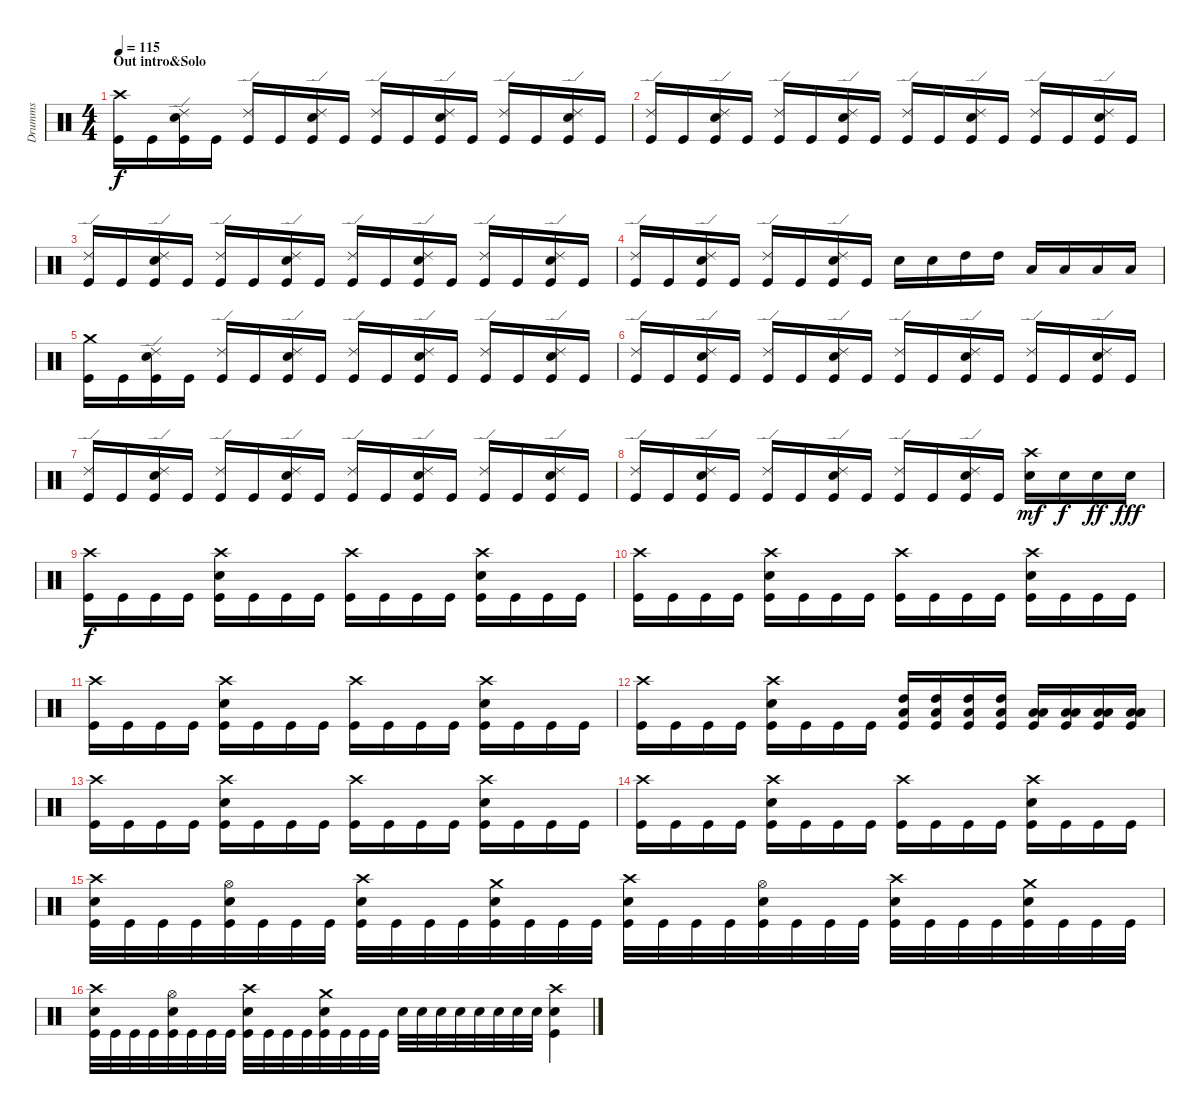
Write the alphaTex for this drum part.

\track ("Drumms" "Drumms") {instrument percussion}
\staff {score}
\articulation defaults
\ts (4 4)
\section ("" "Out intro&Solo")
\tempo 115
\clef neutral
\ks c
("Crash high (hit)" "Kick (hit)").16{dy f} "Kick (hit)".16 ("Ride (edge) 2" "Snare (hit) 2" "Kick (hit)").16 "Kick (hit)".16 ("Ride (edge) 2" "Kick (hit)").16 "Kick (hit)".16 ("Ride (edge) 2" "Snare (hit) 2" "Kick (hit)").16 "Kick (hit)".16 ("Ride (edge) 2" "Kick (hit)").16 "Kick (hit)".16 ("Ride (edge) 2" "Snare (hit) 2" "Kick (hit)").16 "Kick (hit)".16 ("Ride (edge) 2" "Kick (hit)").16 "Kick (hit)".16 ("Ride (edge) 2" "Snare (hit) 2" "Kick (hit)").16 "Kick (hit)".16 |
("Ride (edge) 2" "Kick (hit)").16 "Kick (hit)".16 ("Ride (edge) 2" "Snare (hit) 2" "Kick (hit)").16 "Kick (hit)".16 ("Ride (edge) 2" "Kick (hit)").16 "Kick (hit)".16 ("Ride (edge) 2" "Snare (hit) 2" "Kick (hit)").16 "Kick (hit)".16 ("Ride (edge) 2" "Kick (hit)").16 "Kick (hit)".16 ("Ride (edge) 2" "Snare (hit) 2" "Kick (hit)").16 "Kick (hit)".16 ("Ride (edge) 2" "Kick (hit)").16 "Kick (hit)".16 ("Ride (edge) 2" "Snare (hit) 2" "Kick (hit)").16 "Kick (hit)".16 |
("Ride (edge) 2" "Kick (hit)").16 "Kick (hit)".16 ("Ride (edge) 2" "Snare (hit) 2" "Kick (hit)").16 "Kick (hit)".16 ("Ride (edge) 2" "Kick (hit)").16 "Kick (hit)".16 ("Ride (edge) 2" "Snare (hit) 2" "Kick (hit)").16 "Kick (hit)".16 ("Ride (edge) 2" "Kick (hit)").16 "Kick (hit)".16 ("Ride (edge) 2" "Snare (hit) 2" "Kick (hit)").16 "Kick (hit)".16 ("Ride (edge) 2" "Kick (hit)").16 "Kick (hit)".16 ("Ride (edge) 2" "Snare (hit) 2" "Kick (hit)").16 "Kick (hit)".16 |
("Ride (edge) 2" "Kick (hit)").16 "Kick (hit)".16 ("Ride (edge) 2" "Snare (hit) 2" "Kick (hit)").16 "Kick (hit)".16 ("Ride (edge) 2" "Kick (hit)").16 "Kick (hit)".16 ("Ride (edge) 2" "Snare (hit) 2" "Kick (hit)").16 "Kick (hit)".16 "Snare (hit) 2".16 "Snare (hit) 2".16 "High Tom (hit)".16 "High Tom (hit)".16 "Low Tom (hit)".16 "Low Tom (hit)".16 "Low Floor Tom (hit)".16 "Low Floor Tom (hit)".16 |
("Crash medium (hit)" "Kick (hit)").16 "Kick (hit)".16 ("Ride (edge) 2" "Snare (hit) 2" "Kick (hit)").16 "Kick (hit)".16 ("Ride (edge) 2" "Kick (hit)").16 "Kick (hit)".16 ("Ride (edge) 2" "Snare (hit) 2" "Kick (hit)").16 "Kick (hit)".16 ("Ride (edge) 2" "Kick (hit)").16 "Kick (hit)".16 ("Ride (edge) 2" "Snare (hit) 2" "Kick (hit)").16 "Kick (hit)".16 ("Ride (edge) 2" "Kick (hit)").16 "Kick (hit)".16 ("Ride (edge) 2" "Snare (hit) 2" "Kick (hit)").16 "Kick (hit)".16 |
("Ride (edge) 2" "Kick (hit)").16 "Kick (hit)".16 ("Ride (edge) 2" "Snare (hit) 2" "Kick (hit)").16 "Kick (hit)".16 ("Ride (edge) 2" "Kick (hit)").16 "Kick (hit)".16 ("Ride (edge) 2" "Snare (hit) 2" "Kick (hit)").16 "Kick (hit)".16 ("Ride (edge) 2" "Kick (hit)").16 "Kick (hit)".16 ("Ride (edge) 2" "Snare (hit) 2" "Kick (hit)").16 "Kick (hit)".16 ("Ride (edge) 2" "Kick (hit)").16 "Kick (hit)".16 ("Ride (edge) 2" "Snare (hit) 2" "Kick (hit)").16 "Kick (hit)".16 |
("Ride (edge) 2" "Kick (hit)").16 "Kick (hit)".16 ("Ride (edge) 2" "Snare (hit) 2" "Kick (hit)").16 "Kick (hit)".16 ("Ride (edge) 2" "Kick (hit)").16 "Kick (hit)".16 ("Ride (edge) 2" "Snare (hit) 2" "Kick (hit)").16 "Kick (hit)".16 ("Ride (edge) 2" "Kick (hit)").16 "Kick (hit)".16 ("Ride (edge) 2" "Snare (hit) 2" "Kick (hit)").16 "Kick (hit)".16 ("Ride (edge) 2" "Kick (hit)").16 "Kick (hit)".16 ("Ride (edge) 2" "Snare (hit) 2" "Kick (hit)").16 "Kick (hit)".16 |
("Ride (edge) 2" "Kick (hit)").16 "Kick (hit)".16 ("Ride (edge) 2" "Snare (hit) 2" "Kick (hit)").16 "Kick (hit)".16 ("Ride (edge) 2" "Kick (hit)").16 "Kick (hit)".16 ("Ride (edge) 2" "Snare (hit) 2" "Kick (hit)").16 "Kick (hit)".16 ("Ride (edge) 2" "Kick (hit)").16 "Kick (hit)".16 ("Ride (edge) 2" "Snare (hit) 2" "Kick (hit)").16 "Kick (hit)".16 ("Crash high (hit)" "Snare (hit) 2").16{dy mf} "Snare (hit) 2".16{dy f} "Snare (hit) 2".16{dy ff} "Snare (hit) 2".16{dy fff} |
("Crash high (hit)" "Kick (hit)").16{dy f} "Kick (hit)".16 "Kick (hit)".16 "Kick (hit)".16 ("Crash high (hit)" "Snare (hit) 2" "Kick (hit)").16 "Kick (hit)".16 "Kick (hit)".16 "Kick (hit)".16 ("Crash high (hit)" "Kick (hit)").16 "Kick (hit)".16 "Kick (hit)".16 "Kick (hit)".16 ("Crash high (hit)" "Snare (hit) 2" "Kick (hit)").16 "Kick (hit)".16 "Kick (hit)".16 "Kick (hit)".16 |
("Crash high (hit)" "Kick (hit)").16 "Kick (hit)".16 "Kick (hit)".16 "Kick (hit)".16 ("Crash high (hit)" "Snare (hit) 2" "Kick (hit)").16 "Kick (hit)".16 "Kick (hit)".16 "Kick (hit)".16 ("Crash high (hit)" "Kick (hit)").16 "Kick (hit)".16 "Kick (hit)".16 "Kick (hit)".16 ("Crash high (hit)" "Snare (hit) 2" "Kick (hit)").16 "Kick (hit)".16 "Kick (hit)".16 "Kick (hit)".16 |
("Crash high (hit)" "Kick (hit)").16 "Kick (hit)".16 "Kick (hit)".16 "Kick (hit)".16 ("Crash high (hit)" "Snare (hit) 2" "Kick (hit)").16 "Kick (hit)".16 "Kick (hit)".16 "Kick (hit)".16 ("Crash high (hit)" "Kick (hit)").16 "Kick (hit)".16 "Kick (hit)".16 "Kick (hit)".16 ("Crash high (hit)" "Snare (hit) 2" "Kick (hit)").16 "Kick (hit)".16 "Kick (hit)".16 "Kick (hit)".16 |
("Crash high (hit)" "Kick (hit)").16 "Kick (hit)".16 "Kick (hit)".16 "Kick (hit)".16 ("Crash high (hit)" "Snare (hit) 2" "Kick (hit)").16 "Kick (hit)".16 "Kick (hit)".16 "Kick (hit)".16 ("High Tom (hit)" "Low Tom (hit)" "Kick (hit)").16 ("High Tom (hit)" "Low Tom (hit)" "Kick (hit)").16 ("High Tom (hit)" "Low Tom (hit)" "Kick (hit)").16 ("High Tom (hit)" "Low Tom (hit)" "Kick (hit)").16 ("Low Floor Tom (hit)" "Low Tom (hit)" "Kick (hit)").16 ("Low Floor Tom (hit)" "Low Tom (hit)" "Kick (hit)").16 ("Low Floor Tom (hit)" "Low Tom (hit)" "Kick (hit)").16 ("Low Floor Tom (hit)" "Low Tom (hit)" "Kick (hit)").16 |
("Crash high (hit)" "Kick (hit)").16 "Kick (hit)".16 "Kick (hit)".16 "Kick (hit)".16 ("Crash high (hit)" "Snare (hit) 2" "Kick (hit)").16 "Kick (hit)".16 "Kick (hit)".16 "Kick (hit)".16 ("Crash high (hit)" "Kick (hit)").16 "Kick (hit)".16 "Kick (hit)".16 "Kick (hit)".16 ("Crash high (hit)" "Snare (hit) 2" "Kick (hit)").16 "Kick (hit)".16 "Kick (hit)".16 "Kick (hit)".16 |
("Crash high (hit)" "Kick (hit)").16 "Kick (hit)".16 "Kick (hit)".16 "Kick (hit)".16 ("Crash high (hit)" "Snare (hit) 2" "Kick (hit)").16 "Kick (hit)".16 "Kick (hit)".16 "Kick (hit)".16 ("Crash high (hit)" "Kick (hit)").16 "Kick (hit)".16 "Kick (hit)".16 "Kick (hit)".16 ("Crash high (hit)" "Snare (hit) 2" "Kick (hit)").16 "Kick (hit)".16 "Kick (hit)".16 "Kick (hit)".16 |
("Crash high (hit)" "Snare (hit) 2" "Kick (hit)").32 "Kick (hit)".32 "Kick (hit)".32 "Kick (hit)".32 ("Hi-Hat (open)" "Snare (hit) 2" "Kick (hit)").32 "Kick (hit)".32 "Kick (hit)".32 "Kick (hit)".32 ("Crash high (hit)" "Snare (hit) 2" "Kick (hit)").32 "Kick (hit)".32 "Kick (hit)".32 "Kick (hit)".32 ("Crash medium (hit)" "Snare (hit) 2" "Kick (hit)").32 "Kick (hit)".32 "Kick (hit)".32 "Kick (hit)".32 ("Crash high (hit)" "Snare (hit) 2" "Kick (hit)").32 "Kick (hit)".32 "Kick (hit)".32 "Kick (hit)".32 ("Hi-Hat (open)" "Snare (hit) 2" "Kick (hit)").32 "Kick (hit)".32 "Kick (hit)".32 "Kick (hit)".32 ("Crash high (hit)" "Snare (hit) 2" "Kick (hit)").32 "Kick (hit)".32 "Kick (hit)".32 "Kick (hit)".32 ("Crash medium (hit)" "Snare (hit) 2" "Kick (hit)").32 "Kick (hit)".32 "Kick (hit)".32 "Kick (hit)".32 |
("Crash high (hit)" "Snare (hit) 2" "Kick (hit)").32 "Kick (hit)".32 "Kick (hit)".32 "Kick (hit)".32 ("Hi-Hat (open)" "Snare (hit) 2" "Kick (hit)").32 "Kick (hit)".32 "Kick (hit)".32 "Kick (hit)".32 ("Crash high (hit)" "Snare (hit) 2" "Kick (hit)").32 "Kick (hit)".32 "Kick (hit)".32 "Kick (hit)".32 ("Crash medium (hit)" "Snare (hit) 2" "Kick (hit)").32 "Kick (hit)".32 "Kick (hit)".32 "Kick (hit)".32 "Snare (hit) 2".32 "Snare (hit) 2".32 "Snare (hit) 2".32 "Snare (hit) 2".32 "Snare (hit) 2".32 "Snare (hit) 2".32 "Snare (hit) 2".32 "Snare (hit) 2".32 ("Crash high (hit)" "Snare (hit) 2" "Kick (hit)").4
